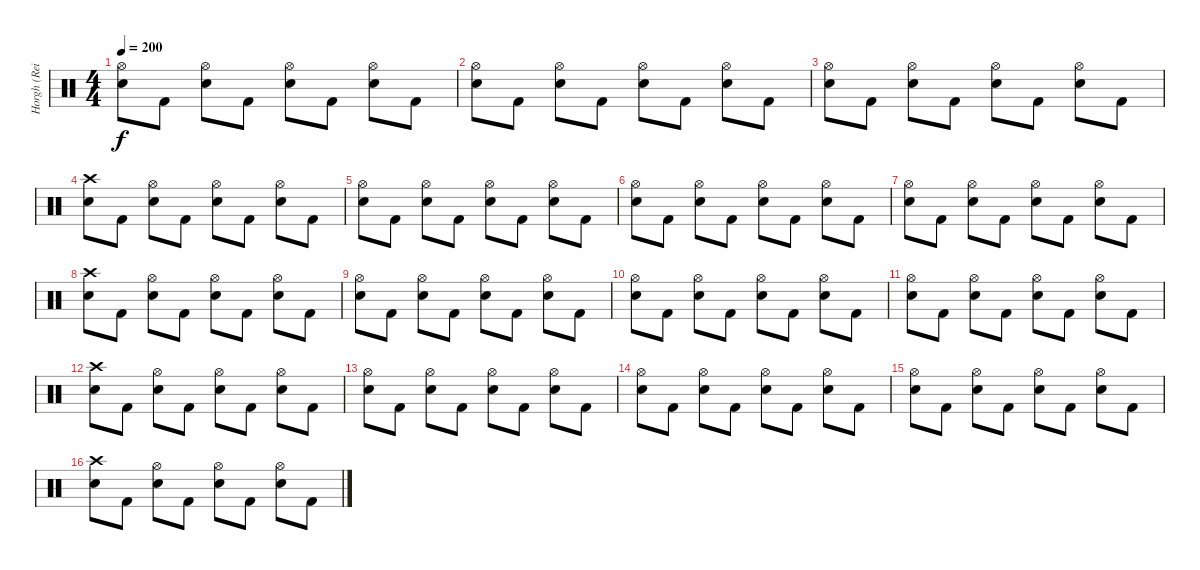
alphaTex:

\track ("Horgh (Reidar Horghagen)" "Horgh (Rei") {instrument percussion}
\staff {score}
\articulation defaults
\ts (4 4)
\tempo 200
\clef neutral
\ks c
("Hi-Hat (open)" "Snare (hit) 2").8{dy f} "Kick (hit) 2".8 ("Hi-Hat (open)" "Snare (hit) 2").8 "Kick (hit) 2".8 ("Hi-Hat (open)" "Snare (hit) 2").8 "Kick (hit) 2".8 ("Hi-Hat (open)" "Snare (hit) 2").8 "Kick (hit) 2".8 |
("Hi-Hat (open)" "Snare (hit) 2").8 "Kick (hit) 2".8 ("Hi-Hat (open)" "Snare (hit) 2").8 "Kick (hit) 2".8 ("Hi-Hat (open)" "Snare (hit) 2").8 "Kick (hit) 2".8 ("Hi-Hat (open)" "Snare (hit) 2").8 "Kick (hit) 2".8 |
("Hi-Hat (open)" "Snare (hit) 2").8 "Kick (hit) 2".8 ("Hi-Hat (open)" "Snare (hit) 2").8 "Kick (hit) 2".8 ("Hi-Hat (open)" "Snare (hit) 2").8 "Kick (hit) 2".8 ("Hi-Hat (open)" "Snare (hit) 2").8 "Kick (hit) 2".8 |
("Crash high (hit)" "Snare (hit) 2").8 "Kick (hit) 2".8 ("Hi-Hat (open)" "Snare (hit) 2").8 "Kick (hit) 2".8 ("Hi-Hat (open)" "Snare (hit) 2").8 "Kick (hit) 2".8 ("Hi-Hat (open)" "Snare (hit) 2").8 "Kick (hit) 2".8 |
("Hi-Hat (open)" "Snare (hit) 2").8 "Kick (hit) 2".8 ("Hi-Hat (open)" "Snare (hit) 2").8 "Kick (hit) 2".8 ("Hi-Hat (open)" "Snare (hit) 2").8 "Kick (hit) 2".8 ("Hi-Hat (open)" "Snare (hit) 2").8 "Kick (hit) 2".8 |
("Hi-Hat (open)" "Snare (hit) 2").8 "Kick (hit) 2".8 ("Hi-Hat (open)" "Snare (hit) 2").8 "Kick (hit) 2".8 ("Hi-Hat (open)" "Snare (hit) 2").8 "Kick (hit) 2".8 ("Hi-Hat (open)" "Snare (hit) 2").8 "Kick (hit) 2".8 |
("Hi-Hat (open)" "Snare (hit) 2").8 "Kick (hit) 2".8 ("Hi-Hat (open)" "Snare (hit) 2").8 "Kick (hit) 2".8 ("Hi-Hat (open)" "Snare (hit) 2").8 "Kick (hit) 2".8 ("Hi-Hat (open)" "Snare (hit) 2").8 "Kick (hit) 2".8 |
("Crash high (hit)" "Snare (hit) 2").8 "Kick (hit) 2".8 ("Hi-Hat (open)" "Snare (hit) 2").8 "Kick (hit) 2".8 ("Hi-Hat (open)" "Snare (hit) 2").8 "Kick (hit) 2".8 ("Hi-Hat (open)" "Snare (hit) 2").8 "Kick (hit) 2".8 |
("Hi-Hat (open)" "Snare (hit) 2").8 "Kick (hit) 2".8 ("Hi-Hat (open)" "Snare (hit) 2").8 "Kick (hit) 2".8 ("Hi-Hat (open)" "Snare (hit) 2").8 "Kick (hit) 2".8 ("Hi-Hat (open)" "Snare (hit) 2").8 "Kick (hit) 2".8 |
("Hi-Hat (open)" "Snare (hit) 2").8 "Kick (hit) 2".8 ("Hi-Hat (open)" "Snare (hit) 2").8 "Kick (hit) 2".8 ("Hi-Hat (open)" "Snare (hit) 2").8 "Kick (hit) 2".8 ("Hi-Hat (open)" "Snare (hit) 2").8 "Kick (hit) 2".8 |
("Hi-Hat (open)" "Snare (hit) 2").8 "Kick (hit) 2".8 ("Hi-Hat (open)" "Snare (hit) 2").8 "Kick (hit) 2".8 ("Hi-Hat (open)" "Snare (hit) 2").8 "Kick (hit) 2".8 ("Hi-Hat (open)" "Snare (hit) 2").8 "Kick (hit) 2".8 |
("Crash high (hit)" "Snare (hit) 2").8 "Kick (hit) 2".8 ("Hi-Hat (open)" "Snare (hit) 2").8 "Kick (hit) 2".8 ("Hi-Hat (open)" "Snare (hit) 2").8 "Kick (hit) 2".8 ("Hi-Hat (open)" "Snare (hit) 2").8 "Kick (hit) 2".8 |
("Hi-Hat (open)" "Snare (hit) 2").8 "Kick (hit) 2".8 ("Hi-Hat (open)" "Snare (hit) 2").8 "Kick (hit) 2".8 ("Hi-Hat (open)" "Snare (hit) 2").8 "Kick (hit) 2".8 ("Hi-Hat (open)" "Snare (hit) 2").8 "Kick (hit) 2".8 |
("Hi-Hat (open)" "Snare (hit) 2").8 "Kick (hit) 2".8 ("Hi-Hat (open)" "Snare (hit) 2").8 "Kick (hit) 2".8 ("Hi-Hat (open)" "Snare (hit) 2").8 "Kick (hit) 2".8 ("Hi-Hat (open)" "Snare (hit) 2").8 "Kick (hit) 2".8 |
("Hi-Hat (open)" "Snare (hit) 2").8 "Kick (hit) 2".8 ("Hi-Hat (open)" "Snare (hit) 2").8 "Kick (hit) 2".8 ("Hi-Hat (open)" "Snare (hit) 2").8 "Kick (hit) 2".8 ("Hi-Hat (open)" "Snare (hit) 2").8 "Kick (hit) 2".8 |
("Crash high (hit)" "Snare (hit) 2").8 "Kick (hit) 2".8 ("Hi-Hat (open)" "Snare (hit) 2").8 "Kick (hit) 2".8 ("Hi-Hat (open)" "Snare (hit) 2").8 "Kick (hit) 2".8 ("Hi-Hat (open)" "Snare (hit) 2").8 "Kick (hit) 2".8
